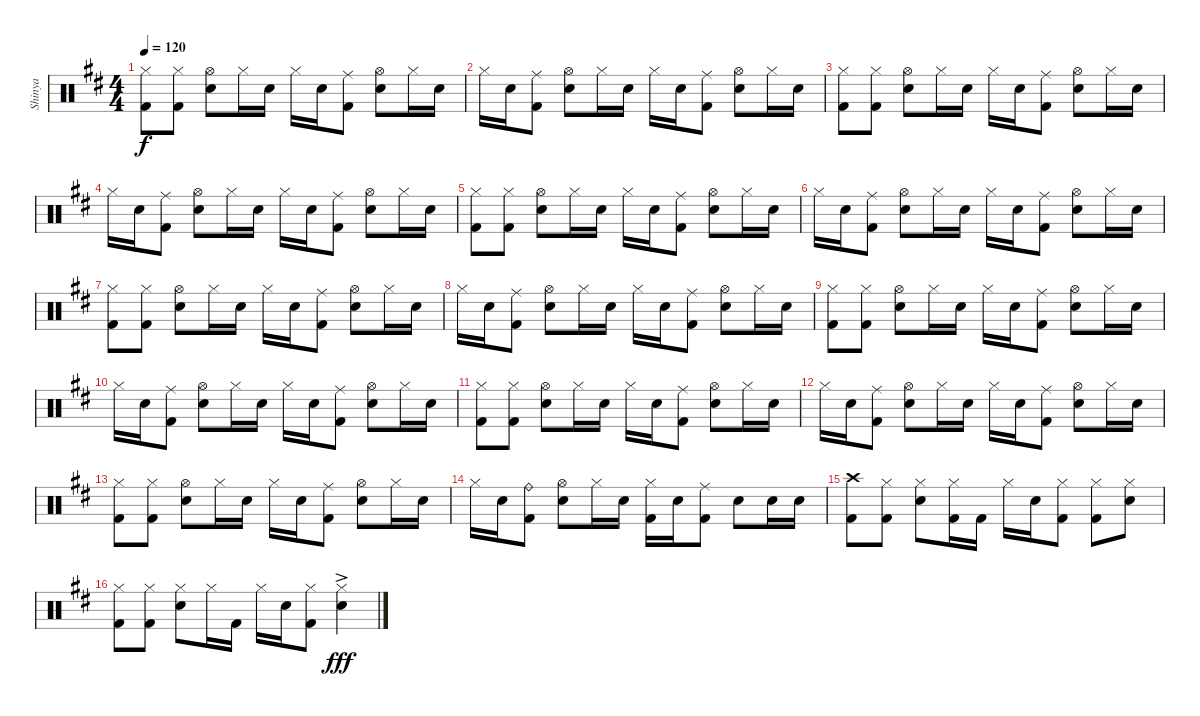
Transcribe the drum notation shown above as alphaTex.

\track ("Shinya" "Shinya") {instrument percussion}
\staff {score}
\articulation defaults
\ts (4 4)
\tempo 120
\clef neutral
\ks bminor
("Kick (hit) 2" "Hi-Hat (closed)").8{dy f} ("Hi-Hat (closed)" "Kick (hit) 2").8 ("Hi-Hat (open)" "Snare (hit) 2").8 "Hi-Hat (closed)".16 "Snare (hit) 2".16 "Hi-Hat (closed)".16 "Snare (hit) 2".16 ("Ride (middle)" "Kick (hit) 2").8 ("Hi-Hat (open)" "Snare (hit) 2").8 "Hi-Hat (closed)".16 "Snare (hit) 2".16 |
"Hi-Hat (closed)".16 "Snare (hit) 2".16 ("Ride (middle)" "Kick (hit) 2").8 ("Hi-Hat (open)" "Snare (hit) 2").8 "Hi-Hat (closed)".16 "Snare (hit) 2".16 "Hi-Hat (closed)".16 "Snare (hit) 2".16 ("Ride (middle)" "Kick (hit) 2").8 ("Hi-Hat (open)" "Snare (hit) 2").8 "Hi-Hat (closed)".16 "Snare (hit) 2".16 |
("Kick (hit) 2" "Hi-Hat (closed)").8 ("Hi-Hat (closed)" "Kick (hit) 2").8 ("Hi-Hat (open)" "Snare (hit) 2").8 "Hi-Hat (closed)".16 "Snare (hit) 2".16 "Hi-Hat (closed)".16 "Snare (hit) 2".16 ("Ride (middle)" "Kick (hit) 2").8 ("Hi-Hat (open)" "Snare (hit) 2").8 "Hi-Hat (closed)".16 "Snare (hit) 2".16 |
"Hi-Hat (closed)".16 "Snare (hit) 2".16 ("Ride (middle)" "Kick (hit) 2").8 ("Hi-Hat (open)" "Snare (hit) 2").8 "Hi-Hat (closed)".16 "Snare (hit) 2".16 "Hi-Hat (closed)".16 "Snare (hit) 2".16 ("Ride (middle)" "Kick (hit) 2").8 ("Hi-Hat (open)" "Snare (hit) 2").8 "Hi-Hat (closed)".16 "Snare (hit) 2".16 |
("Kick (hit) 2" "Hi-Hat (closed)").8 ("Hi-Hat (closed)" "Kick (hit) 2").8 ("Hi-Hat (open)" "Snare (hit) 2").8 "Hi-Hat (closed)".16 "Snare (hit) 2".16 "Hi-Hat (closed)".16 "Snare (hit) 2".16 ("Ride (middle)" "Kick (hit) 2").8 ("Hi-Hat (open)" "Snare (hit) 2").8 "Hi-Hat (closed)".16 "Snare (hit) 2".16 |
"Hi-Hat (closed)".16 "Snare (hit) 2".16 ("Ride (middle)" "Kick (hit) 2").8 ("Hi-Hat (open)" "Snare (hit) 2").8 "Hi-Hat (closed)".16 "Snare (hit) 2".16 "Hi-Hat (closed)".16 "Snare (hit) 2".16 ("Ride (middle)" "Kick (hit) 2").8 ("Hi-Hat (open)" "Snare (hit) 2").8 "Hi-Hat (closed)".16 "Snare (hit) 2".16 |
("Kick (hit) 2" "Hi-Hat (closed)").8 ("Hi-Hat (closed)" "Kick (hit) 2").8 ("Hi-Hat (open)" "Snare (hit) 2").8 "Hi-Hat (closed)".16 "Snare (hit) 2".16 "Hi-Hat (closed)".16 "Snare (hit) 2".16 ("Ride (middle)" "Kick (hit) 2").8 ("Hi-Hat (open)" "Snare (hit) 2").8 "Hi-Hat (closed)".16 "Snare (hit) 2".16 |
"Hi-Hat (closed)".16 "Snare (hit) 2".16 ("Ride (middle)" "Kick (hit) 2").8 ("Hi-Hat (open)" "Snare (hit) 2").8 "Hi-Hat (closed)".16 "Snare (hit) 2".16 "Hi-Hat (closed)".16 "Snare (hit) 2".16 ("Ride (middle)" "Kick (hit) 2").8 ("Hi-Hat (open)" "Snare (hit) 2").8 "Hi-Hat (closed)".16 "Snare (hit) 2".16 |
("Kick (hit) 2" "Hi-Hat (closed)").8 ("Hi-Hat (closed)" "Kick (hit) 2").8 ("Hi-Hat (open)" "Snare (hit) 2").8 "Hi-Hat (closed)".16 "Snare (hit) 2".16 "Hi-Hat (closed)".16 "Snare (hit) 2".16 ("Ride (middle)" "Kick (hit) 2").8 ("Hi-Hat (open)" "Snare (hit) 2").8 "Hi-Hat (closed)".16 "Snare (hit) 2".16 |
"Hi-Hat (closed)".16 "Snare (hit) 2".16 ("Ride (middle)" "Kick (hit) 2").8 ("Hi-Hat (open)" "Snare (hit) 2").8 "Hi-Hat (closed)".16 "Snare (hit) 2".16 "Hi-Hat (closed)".16 "Snare (hit) 2".16 ("Ride (middle)" "Kick (hit) 2").8 ("Hi-Hat (open)" "Snare (hit) 2").8 "Hi-Hat (closed)".16 "Snare (hit) 2".16 |
("Kick (hit) 2" "Hi-Hat (closed)").8 ("Hi-Hat (closed)" "Kick (hit) 2").8 ("Hi-Hat (open)" "Snare (hit) 2").8 "Hi-Hat (closed)".16 "Snare (hit) 2".16 "Hi-Hat (closed)".16 "Snare (hit) 2".16 ("Ride (middle)" "Kick (hit) 2").8 ("Hi-Hat (open)" "Snare (hit) 2").8 "Hi-Hat (closed)".16 "Snare (hit) 2".16 |
"Hi-Hat (closed)".16 "Snare (hit) 2".16 ("Ride (middle)" "Kick (hit) 2").8 ("Hi-Hat (open)" "Snare (hit) 2").8 "Hi-Hat (closed)".16 "Snare (hit) 2".16 "Hi-Hat (closed)".16 "Snare (hit) 2".16 ("Ride (middle)" "Kick (hit) 2").8 ("Hi-Hat (open)" "Snare (hit) 2").8 "Hi-Hat (closed)".16 "Snare (hit) 2".16 |
("Kick (hit) 2" "Hi-Hat (closed)").8 ("Hi-Hat (closed)" "Kick (hit) 2").8 ("Hi-Hat (open)" "Snare (hit) 2").8 "Hi-Hat (closed)".16 "Snare (hit) 2".16 "Hi-Hat (closed)".16 "Snare (hit) 2".16 ("Ride (middle)" "Kick (hit) 2").8 ("Hi-Hat (open)" "Snare (hit) 2").8 "Hi-Hat (closed)".16 "Snare (hit) 2".16 |
"Hi-Hat (closed)".16 "Snare (hit) 2".16 ("Ride (bell)" "Kick (hit) 2").8 ("Hi-Hat (open)" "Snare (hit) 2").8 "Hi-Hat (closed)".16 "Snare (hit) 2".16 ("Hi-Hat (closed)" "Kick (hit) 2").16 "Snare (hit) 2".16 ("Ride (middle)" "Kick (hit) 2").8 "Snare (hit) 2".8 "Snare (hit) 2".16 "Snare (hit) 2".16 |
("Crash high (hit)" "Kick (hit) 2").8 ("Hi-Hat (closed)" "Kick (hit) 2").8 ("Hi-Hat (closed)" "Snare (hit) 2").8 ("Hi-Hat (closed)" "Kick (hit) 2").16 "Kick (hit) 2".16 "Hi-Hat (closed)".16 "Snare (hit) 2".16 ("Hi-Hat (closed)" "Kick (hit) 2").8 ("Hi-Hat (closed)" "Kick (hit) 2").8 ("Hi-Hat (closed)" "Snare (hit) 2").8 |
("Hi-Hat (closed)" "Kick (hit) 2").8 ("Hi-Hat (closed)" "Kick (hit) 2").8 ("Hi-Hat (closed)" "Snare (hit) 2").8 "Hi-Hat (closed)".16 "Kick (hit) 2".16 "Hi-Hat (closed)".16 "Snare (hit) 2".16 ("Hi-Hat (closed)" "Kick (hit) 2").8 ("Hi-Hat (closed)"{ac} "Snare (hit) 2").4{dy fff}
